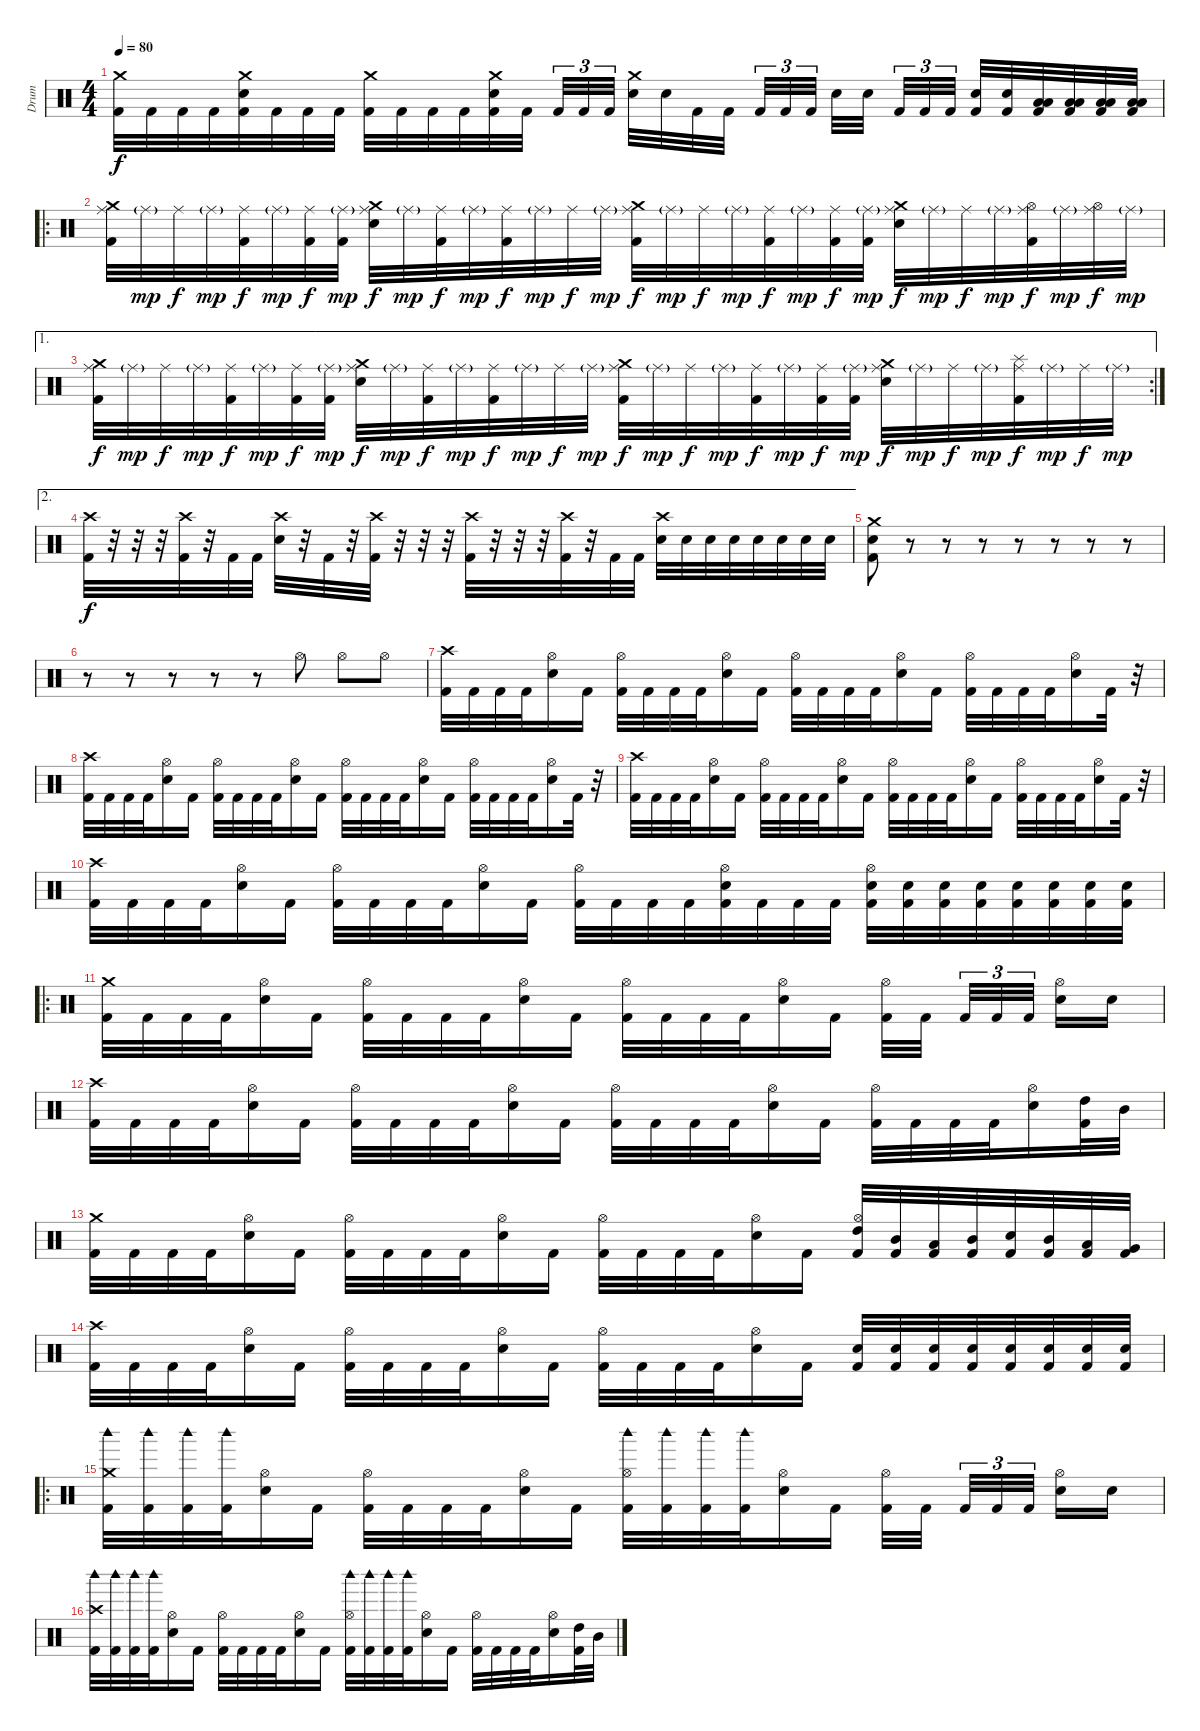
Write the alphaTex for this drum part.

\track ("Drum" "Drum") {instrument percussion}
\staff {score}
\articulation defaults
\ts (4 4)
\tempo 80
\clef neutral
\ks c
("Crash medium (hit)" "Kick (hit) 2").32{dy f} "Kick (hit) 2".32 "Kick (hit) 2".32 "Kick (hit) 2".32 ("Crash medium (hit)" "Electric Snare (hit)" "Kick (hit) 2").32 "Kick (hit) 2".32 "Kick (hit) 2".32 "Kick (hit) 2".32 ("Crash medium (hit)" "Kick (hit) 2").32 "Kick (hit) 2".32 "Kick (hit) 2".32 "Kick (hit) 2".32 ("Crash medium (hit)" "Electric Snare (hit)" "Kick (hit) 2").32 "Kick (hit) 2".32 "Kick (hit) 2".32{tu (3 2)} "Kick (hit) 2".32{tu (3 2)} "Kick (hit) 2".32{tu (3 2)} ("Crash medium (hit)" "Electric Snare (hit)").32 "Electric Snare (hit)".32 "Kick (hit) 2".32 "Kick (hit) 2".32 "Kick (hit) 2".32{tu (3 2)} "Kick (hit) 2".32{tu (3 2)} "Kick (hit) 2".32{tu (3 2)} "Electric Snare (hit)".32 "Electric Snare (hit)".32 "Kick (hit) 2".32{tu (3 2)} "Kick (hit) 2".32{tu (3 2)} "Kick (hit) 2".32{tu (3 2)} ("Electric Snare (hit)" "Kick (hit) 2").32 ("Electric Snare (hit)" "Kick (hit) 2").32 ("Low Tom (hit)" "Low Tom (hit)" "Kick (hit) 2").32 ("Low Tom (hit)" "Low Tom (hit)" "Kick (hit) 2").32 ("Low Tom (hit)" "Low Tom (hit)" "Kick (hit) 2").32 ("Low Tom (hit)" "Low Tom (hit)" "Kick (hit) 2").32 |
\ro
("Crash medium (hit)" "Ride (middle)" "Kick (hit) 2").32 "Ride (middle)"{g}.32{dy mp} "Ride (middle)".32{dy f} "Ride (middle)"{g}.32{dy mp} ("Ride (middle)" "Kick (hit) 2").32{dy f} "Ride (middle)"{g}.32{dy mp} ("Ride (middle)" "Kick (hit) 2").32{dy f} ("Ride (middle)"{g} "Kick (hit) 2").32{dy mp} ("Crash medium (hit)" "Ride (middle)" "Electric Snare (hit)").32{dy f} "Ride (middle)"{g}.32{dy mp} ("Ride (middle)" "Kick (hit) 2").32{dy f} "Ride (middle)"{g}.32{dy mp} ("Ride (middle)" "Kick (hit) 2").32{dy f} "Ride (middle)"{g}.32{dy mp} "Ride (middle)".32{dy f} "Ride (middle)"{g}.32{dy mp} ("Crash medium (hit)" "Ride (middle)" "Kick (hit) 2").32{dy f} "Ride (middle)"{g}.32{dy mp} "Ride (middle)".32{dy f} "Ride (middle)"{g}.32{dy mp} ("Ride (middle)" "Kick (hit) 2").32{dy f} "Ride (middle)"{g}.32{dy mp} ("Ride (middle)" "Kick (hit) 2").32{dy f} ("Ride (middle)"{g} "Kick (hit) 2").32{dy mp} ("Crash medium (hit)" "Ride (middle)" "Electric Snare (hit)").32{dy f} "Ride (middle)"{g}.32{dy mp} "Ride (middle)".32{dy f} "Ride (middle)"{g}.32{dy mp} ("Hi-Hat (open)" "Ride (middle)" "Kick (hit) 2").32{dy f} "Ride (middle)"{g}.32{dy mp} ("Hi-Hat (open)" "Ride (middle)").32{dy f} "Ride (middle)"{g}.32{dy mp} |
\ae 1
\rc 2
("Crash medium (hit)" "Ride (middle)" "Kick (hit) 2").32{dy f} "Ride (middle)"{g}.32{dy mp} "Ride (middle)".32{dy f} "Ride (middle)"{g}.32{dy mp} ("Ride (middle)" "Kick (hit) 2").32{dy f} "Ride (middle)"{g}.32{dy mp} ("Ride (middle)" "Kick (hit) 2").32{dy f} ("Ride (middle)"{g} "Kick (hit) 2").32{dy mp} ("Crash medium (hit)" "Ride (middle)" "Electric Snare (hit)").32{dy f} "Ride (middle)"{g}.32{dy mp} ("Ride (middle)" "Kick (hit) 2").32{dy f} "Ride (middle)"{g}.32{dy mp} ("Ride (middle)" "Kick (hit) 2").32{dy f} "Ride (middle)"{g}.32{dy mp} "Ride (middle)".32{dy f} "Ride (middle)"{g}.32{dy mp} ("Crash medium (hit)" "Ride (middle)" "Kick (hit) 2").32{dy f} "Ride (middle)"{g}.32{dy mp} "Ride (middle)".32{dy f} "Ride (middle)"{g}.32{dy mp} ("Ride (middle)" "Kick (hit) 2").32{dy f} "Ride (middle)"{g}.32{dy mp} ("Ride (middle)" "Kick (hit) 2").32{dy f} ("Ride (middle)"{g} "Kick (hit) 2").32{dy mp} ("Crash medium (hit)" "Ride (middle)" "Electric Snare (hit)").32{dy f} "Ride (middle)"{g}.32{dy mp} "Ride (middle)".32{dy f} "Ride (middle)"{g}.32{dy mp} ("Splash (hit)" "Ride (middle)" "Kick (hit) 2").32{dy f} "Ride (middle)"{g}.32{dy mp} "Ride (middle)".32{dy f} "Ride (middle)"{g}.32{dy mp} |
\ae 2
("Crash high (hit)" "Kick (hit) 2").32{dy f} r.32 r.32 r.32 ("Crash high (hit)" "Kick (hit) 2").32 r.32 "Kick (hit) 2".32 "Kick (hit) 2".32 ("Crash high (hit)" "Electric Snare (hit)").32 r.32 "Kick (hit) 2".32 r.32 ("Crash high (hit)" "Kick (hit) 2").32 r.32 r.32 r.32 ("Crash high (hit)" "Kick (hit) 2").32 r.32 r.32 r.32 ("Crash high (hit)" "Kick (hit) 2").32 r.32 "Kick (hit) 2".32 "Kick (hit) 2".32 ("Crash high (hit)" "Electric Snare (hit)").32 "Electric Snare (hit)".32 "Electric Snare (hit)".32 "Electric Snare (hit)".32 "Electric Snare (hit)".32 "Electric Snare (hit)".32 "Electric Snare (hit)".32 "Electric Snare (hit)".32 |
("Crash medium (hit)" "Electric Snare (hit)" "Kick (hit) 2").8 r.8 r.8 r.8 r.8 r.8 r.8 r.8 |
r.8 r.8 r.8 r.8 r.8 "Hi-Hat (open)".8 "Hi-Hat (open)".8 "Hi-Hat (open)".8 |
("Crash high (hit)" "Kick (hit) 2").32 "Kick (hit) 2".32 "Kick (hit) 2".32 "Kick (hit) 2".32 ("Hi-Hat (open)" "Electric Snare (hit)").16 "Kick (hit) 2".16 ("Hi-Hat (open)" "Kick (hit) 2").32 "Kick (hit) 2".32 "Kick (hit) 2".32 "Kick (hit) 2".32 ("Hi-Hat (open)" "Electric Snare (hit)").16 "Kick (hit) 2".16 ("Hi-Hat (open)" "Kick (hit) 2").32 "Kick (hit) 2".32 "Kick (hit) 2".32 "Kick (hit) 2".32 ("Hi-Hat (open)" "Electric Snare (hit)").16 "Kick (hit) 2".16 ("Hi-Hat (open)" "Kick (hit) 2").32 "Kick (hit) 2".32 "Kick (hit) 2".32 "Kick (hit) 2".32 ("Hi-Hat (open)" "Electric Snare (hit)").16 "Kick (hit) 2".32 r.32 |
("Crash high (hit)" "Kick (hit) 2").32 "Kick (hit) 2".32 "Kick (hit) 2".32 "Kick (hit) 2".32 ("Hi-Hat (open)" "Electric Snare (hit)").16 "Kick (hit) 2".16 ("Hi-Hat (open)" "Kick (hit) 2").32 "Kick (hit) 2".32 "Kick (hit) 2".32 "Kick (hit) 2".32 ("Hi-Hat (open)" "Electric Snare (hit)").16 "Kick (hit) 2".16 ("Hi-Hat (open)" "Kick (hit) 2").32 "Kick (hit) 2".32 "Kick (hit) 2".32 "Kick (hit) 2".32 ("Hi-Hat (open)" "Electric Snare (hit)").16 "Kick (hit) 2".16 ("Hi-Hat (open)" "Kick (hit) 2").32 "Kick (hit) 2".32 "Kick (hit) 2".32 "Kick (hit) 2".32 ("Hi-Hat (open)" "Electric Snare (hit)").16 "Kick (hit) 2".32 r.32 |
("Crash high (hit)" "Kick (hit) 2").32 "Kick (hit) 2".32 "Kick (hit) 2".32 "Kick (hit) 2".32 ("Hi-Hat (open)" "Electric Snare (hit)").16 "Kick (hit) 2".16 ("Hi-Hat (open)" "Kick (hit) 2").32 "Kick (hit) 2".32 "Kick (hit) 2".32 "Kick (hit) 2".32 ("Hi-Hat (open)" "Electric Snare (hit)").16 "Kick (hit) 2".16 ("Hi-Hat (open)" "Kick (hit) 2").32 "Kick (hit) 2".32 "Kick (hit) 2".32 "Kick (hit) 2".32 ("Hi-Hat (open)" "Electric Snare (hit)").16 "Kick (hit) 2".16 ("Hi-Hat (open)" "Kick (hit) 2").32 "Kick (hit) 2".32 "Kick (hit) 2".32 "Kick (hit) 2".32 ("Hi-Hat (open)" "Electric Snare (hit)").16 "Kick (hit) 2".32 r.32 |
("Crash high (hit)" "Kick (hit) 2").32 "Kick (hit) 2".32 "Kick (hit) 2".32 "Kick (hit) 2".32 ("Hi-Hat (open)" "Electric Snare (hit)").16 "Kick (hit) 2".16 ("Hi-Hat (open)" "Kick (hit) 2").32 "Kick (hit) 2".32 "Kick (hit) 2".32 "Kick (hit) 2".32 ("Hi-Hat (open)" "Electric Snare (hit)").16 "Kick (hit) 2".16 ("Hi-Hat (open)" "Kick (hit) 2").32 "Kick (hit) 2".32 "Kick (hit) 2".32 "Kick (hit) 2".32 ("Hi-Hat (open)" "Electric Snare (hit)" "Kick (hit) 2").32 "Kick (hit) 2".32 "Kick (hit) 2".32 "Kick (hit) 2".32 ("Hi-Hat (open)" "Electric Snare (hit)" "Kick (hit) 2").32 ("Electric Snare (hit)" "Kick (hit) 2").32 ("Electric Snare (hit)" "Kick (hit) 2").32 ("Electric Snare (hit)" "Kick (hit) 2").32 ("Electric Snare (hit)" "Kick (hit) 2").32 ("Electric Snare (hit)" "Kick (hit) 2").32 ("Electric Snare (hit)" "Kick (hit) 2").32 ("Electric Snare (hit)" "Kick (hit) 2").32 |
\ro
("Crash medium (hit)" "Kick (hit) 2").32 "Kick (hit) 2".32 "Kick (hit) 2".32 "Kick (hit) 2".32 ("Hi-Hat (open)" "Electric Snare (hit)").16 "Kick (hit) 2".16 ("Hi-Hat (open)" "Kick (hit) 2").32 "Kick (hit) 2".32 "Kick (hit) 2".32 "Kick (hit) 2".32 ("Hi-Hat (open)" "Electric Snare (hit)").16 "Kick (hit) 2".16 ("Hi-Hat (open)" "Kick (hit) 2").32 "Kick (hit) 2".32 "Kick (hit) 2".32 "Kick (hit) 2".32 ("Hi-Hat (open)" "Electric Snare (hit)").16 "Kick (hit) 2".16 ("Hi-Hat (open)" "Kick (hit) 2").32 "Kick (hit) 2".32 "Kick (hit) 2".32{tu (3 2)} "Kick (hit) 2".32{tu (3 2)} "Kick (hit) 2".32{tu (3 2)} ("Hi-Hat (open)" "Electric Snare (hit)").16 "Electric Snare (hit)".16 |
("Crash high (hit)" "Kick (hit) 2").32 "Kick (hit) 2".32 "Kick (hit) 2".32 "Kick (hit) 2".32 ("Hi-Hat (open)" "Electric Snare (hit)").16 "Kick (hit) 2".16 ("Hi-Hat (open)" "Kick (hit) 2").32 "Kick (hit) 2".32 "Kick (hit) 2".32 "Kick (hit) 2".32 ("Hi-Hat (open)" "Electric Snare (hit)").16 "Kick (hit) 2".16 ("Hi-Hat (open)" "Kick (hit) 2").32 "Kick (hit) 2".32 "Kick (hit) 2".32 "Kick (hit) 2".32 ("Hi-Hat (open)" "Electric Snare (hit)").16 "Kick (hit) 2".16 ("Hi-Hat (open)" "Kick (hit) 2").32 "Kick (hit) 2".32 "Kick (hit) 2".32 "Kick (hit) 2".32 ("Hi-Hat (open)" "Electric Snare (hit)").16 ("High Tom (hit)" "Kick (hit) 2").32 "Mid Tom (hit)".32 |
("Crash medium (hit)" "Kick (hit) 2").32 "Kick (hit) 2".32 "Kick (hit) 2".32 "Kick (hit) 2".32 ("Hi-Hat (open)" "Electric Snare (hit)").16 "Kick (hit) 2".16 ("Hi-Hat (open)" "Kick (hit) 2").32 "Kick (hit) 2".32 "Kick (hit) 2".32 "Kick (hit) 2".32 ("Hi-Hat (open)" "Electric Snare (hit)").16 "Kick (hit) 2".16 ("Hi-Hat (open)" "Kick (hit) 2").32 "Kick (hit) 2".32 "Kick (hit) 2".32 "Kick (hit) 2".32 ("Hi-Hat (open)" "Electric Snare (hit)").16 "Kick (hit) 2".16 ("Hi-Hat (open)" "High Tom (hit)" "Kick (hit) 2").32 ("Mid Tom (hit)" "Kick (hit) 2").32 ("Low Tom (hit)" "Kick (hit) 2").32 ("Mid Tom (hit)" "Kick (hit) 2").32 ("Electric Snare (hit)" "Kick (hit) 2").32 ("Mid Tom (hit)" "Kick (hit) 2").32 ("Low Tom (hit)" "Kick (hit) 2").32 ("Very Low Tom (hit)" "Kick (hit) 2").32 |
("Crash high (hit)" "Kick (hit) 2").32 "Kick (hit) 2".32 "Kick (hit) 2".32 "Kick (hit) 2".32 ("Hi-Hat (open)" "Electric Snare (hit)").16 "Kick (hit) 2".16 ("Hi-Hat (open)" "Kick (hit) 2").32 "Kick (hit) 2".32 "Kick (hit) 2".32 "Kick (hit) 2".32 ("Hi-Hat (open)" "Electric Snare (hit)").16 "Kick (hit) 2".16 ("Hi-Hat (open)" "Kick (hit) 2").32 "Kick (hit) 2".32 "Kick (hit) 2".32 "Kick (hit) 2".32 ("Hi-Hat (open)" "Electric Snare (hit)").16 "Kick (hit) 2".16 ("Electric Snare (hit)" "Kick (hit) 2").32 ("Electric Snare (hit)" "Kick (hit) 2").32 ("Electric Snare (hit)" "Kick (hit) 2").32 ("Electric Snare (hit)" "Kick (hit) 2").32 ("Electric Snare (hit)" "Kick (hit) 2").32 ("Electric Snare (hit)" "Kick (hit) 2").32 ("Electric Snare (hit)" "Kick (hit) 2").32 ("Electric Snare (hit)" "Kick (hit) 2").32 |
\ro
("Woodblock high (hit)" "Crash medium (hit)" "Kick (hit) 2").32 ("Woodblock high (hit)" "Kick (hit) 2").32 ("Woodblock high (hit)" "Kick (hit) 2").32 ("Woodblock high (hit)" "Kick (hit) 2").32 ("Hi-Hat (open)" "Electric Snare (hit)").16 "Kick (hit) 2".16 ("Hi-Hat (open)" "Kick (hit) 2").32 "Kick (hit) 2".32 "Kick (hit) 2".32 "Kick (hit) 2".32 ("Hi-Hat (open)" "Electric Snare (hit)").16 "Kick (hit) 2".16 ("Woodblock high (hit)" "Hi-Hat (open)" "Kick (hit) 2").32 ("Woodblock high (hit)" "Kick (hit) 2").32 ("Woodblock high (hit)" "Kick (hit) 2").32 ("Woodblock high (hit)" "Kick (hit) 2").32 ("Hi-Hat (open)" "Electric Snare (hit)").16 "Kick (hit) 2".16 ("Hi-Hat (open)" "Kick (hit) 2").32 "Kick (hit) 2".32 "Kick (hit) 2".32{tu (3 2)} "Kick (hit) 2".32{tu (3 2)} "Kick (hit) 2".32{tu (3 2)} ("Hi-Hat (open)" "Electric Snare (hit)").16 "Electric Snare (hit)".16 |
("Woodblock high (hit)" "Crash high (hit)" "Kick (hit) 2").32 ("Woodblock high (hit)" "Kick (hit) 2").32 ("Woodblock high (hit)" "Kick (hit) 2").32 ("Woodblock high (hit)" "Kick (hit) 2").32 ("Hi-Hat (open)" "Electric Snare (hit)").16 "Kick (hit) 2".16 ("Hi-Hat (open)" "Kick (hit) 2").32 "Kick (hit) 2".32 "Kick (hit) 2".32 "Kick (hit) 2".32 ("Hi-Hat (open)" "Electric Snare (hit)").16 "Kick (hit) 2".16 ("Woodblock high (hit)" "Hi-Hat (open)" "Kick (hit) 2").32 ("Woodblock high (hit)" "Kick (hit) 2").32 ("Woodblock high (hit)" "Kick (hit) 2").32 ("Woodblock high (hit)" "Kick (hit) 2").32 ("Hi-Hat (open)" "Electric Snare (hit)").16 "Kick (hit) 2".16 ("Hi-Hat (open)" "Kick (hit) 2").32 "Kick (hit) 2".32 "Kick (hit) 2".32 "Kick (hit) 2".32 ("Hi-Hat (open)" "Electric Snare (hit)").16 ("High Tom (hit)" "Kick (hit) 2").32 "Mid Tom (hit)".32
